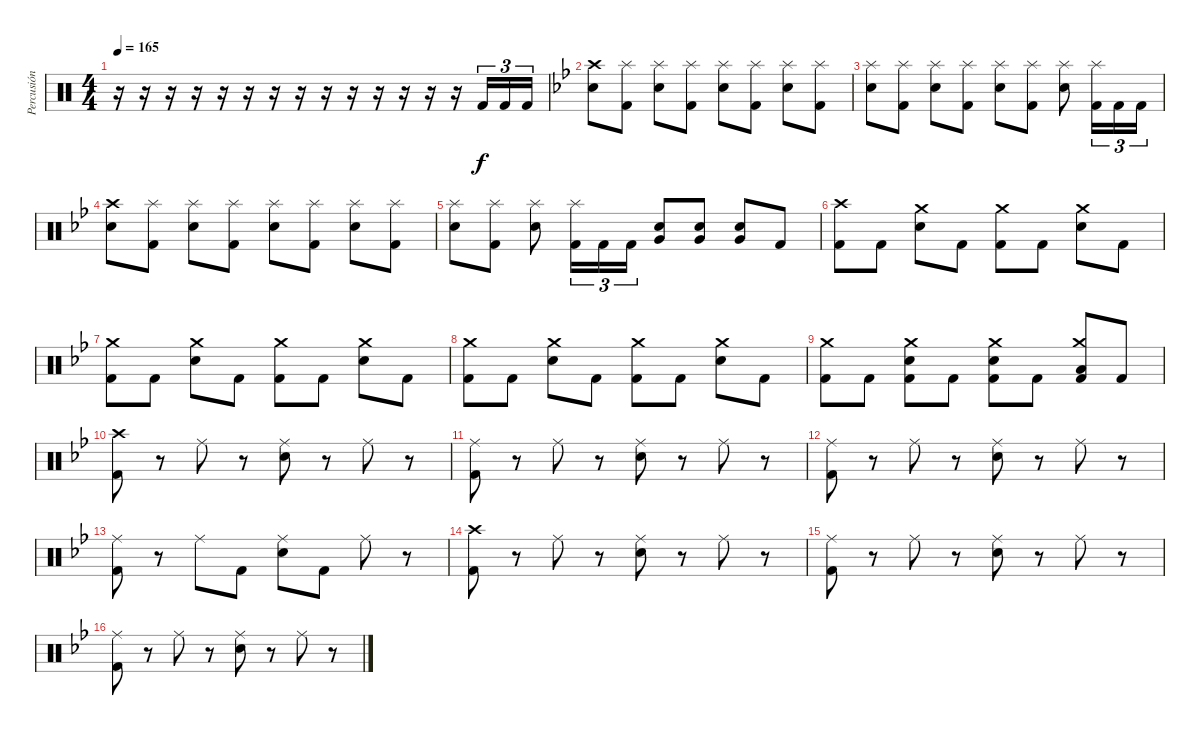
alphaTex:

\track ("Percusión" "Percusión") {instrument percussion}
\staff {score}
\articulation defaults
\ts (4 4)
\tempo 165
\clef neutral
\ks c
r.16{dy f} r.16 r.16 r.16 r.16 r.16 r.16 r.16 r.16 r.16 r.16 r.16 r.16 r.16 "Kick (hit) 2".16{tu (3 2)} "Kick (hit) 2".16{tu (3 2)} "Kick (hit) 2".16{tu (3 2)} |
\ks bb
("Crash high (hit)" "Electric Snare (hit)").8 ("Splash (hit)" "Kick (hit) 2").8 ("Splash (hit)" "Electric Snare (hit)").8 ("Splash (hit)" "Kick (hit) 2").8 ("Splash (hit)" "Electric Snare (hit)").8 ("Splash (hit)" "Kick (hit) 2").8 ("Splash (hit)" "Electric Snare (hit)").8 ("Splash (hit)" "Kick (hit) 2").8 |
("Splash (hit)" "Electric Snare (hit)").8 ("Splash (hit)" "Kick (hit) 2").8 ("Splash (hit)" "Electric Snare (hit)").8 ("Splash (hit)" "Kick (hit) 2").8 ("Splash (hit)" "Electric Snare (hit)").8 ("Splash (hit)" "Kick (hit) 2").8 ("Splash (hit)" "Electric Snare (hit)").8 ("Splash (hit)" "Kick (hit) 2").16{tu (3 2)} "Kick (hit) 2".16{tu (3 2)} "Kick (hit) 2".16{tu (3 2)} |
("Crash high (hit)" "Electric Snare (hit)").8 ("Splash (hit)" "Kick (hit) 2").8 ("Splash (hit)" "Electric Snare (hit)").8 ("Splash (hit)" "Kick (hit) 2").8 ("Splash (hit)" "Electric Snare (hit)").8 ("Splash (hit)" "Kick (hit) 2").8 ("Splash (hit)" "Electric Snare (hit)").8 ("Splash (hit)" "Kick (hit) 2").8 |
("Splash (hit)" "Electric Snare (hit)").8 ("Splash (hit)" "Kick (hit) 2").8 ("Splash (hit)" "Electric Snare (hit)").8 ("Splash (hit)" "Kick (hit) 2").16{tu (3 2)} "Kick (hit) 2".16{tu (3 2)} "Kick (hit) 2".16{tu (3 2)} ("Electric Snare (hit)" "Very Low Tom (hit)").8 ("Electric Snare (hit)" "Very Low Tom (hit)").8 ("Electric Snare (hit)" "Very Low Tom (hit)").8 "Kick (hit) 2".8 |
("Crash high (hit)" "Kick (hit) 2").8 "Kick (hit) 2".8 ("Crash medium (hit)" "Electric Snare (hit)").8 "Kick (hit) 2".8 ("Crash medium (hit)" "Kick (hit) 2").8 "Kick (hit) 2".8 ("Crash medium (hit)" "Electric Snare (hit)").8 "Kick (hit) 2".8 |
("Crash medium (hit)" "Kick (hit) 2").8 "Kick (hit) 2".8 ("Crash medium (hit)" "Electric Snare (hit)").8 "Kick (hit) 2".8 ("Crash medium (hit)" "Kick (hit) 2").8 "Kick (hit) 2".8 ("Crash medium (hit)" "Electric Snare (hit)").8 "Kick (hit) 2".8 |
("Crash medium (hit)" "Kick (hit) 2").8 "Kick (hit) 2".8 ("Crash medium (hit)" "Electric Snare (hit)").8 "Kick (hit) 2".8 ("Crash medium (hit)" "Kick (hit) 2").8 "Kick (hit) 2".8 ("Crash medium (hit)" "Electric Snare (hit)").8 "Kick (hit) 2".8 |
("Crash medium (hit)" "Kick (hit) 2").8 "Kick (hit) 2".8 ("Crash medium (hit)" "Electric Snare (hit)" "Kick (hit) 2").8 "Kick (hit) 2".8 ("Crash medium (hit)" "Electric Snare (hit)" "Kick (hit) 2").8 "Kick (hit) 2".8 ("Crash medium (hit)" "Low Tom (hit)" "Kick (hit) 2").8 "Kick (hit) 2".8 |
("Crash high (hit)" "Kick (hit) 2").8 r.8 "Ride (middle)".8 r.8 ("Ride (middle)" "Electric Snare (hit)").8 r.8 "Ride (middle)".8 r.8 |
("Ride (middle)" "Kick (hit) 2").8 r.8 "Ride (middle)".8 r.8 ("Ride (middle)" "Electric Snare (hit)").8 r.8 "Ride (middle)".8 r.8 |
("Ride (middle)" "Kick (hit) 2").8 r.8 "Ride (middle)".8 r.8 ("Ride (middle)" "Electric Snare (hit)").8 r.8 "Ride (middle)".8 r.8 |
("Ride (middle)" "Kick (hit) 2").8 r.8 "Ride (middle)".8 "Kick (hit) 2".8 ("Ride (middle)" "Electric Snare (hit)").8 "Kick (hit) 2".8 "Ride (middle)".8 r.8 |
("Crash high (hit)" "Kick (hit) 2").8 r.8 "Ride (middle)".8 r.8 ("Ride (middle)" "Electric Snare (hit)").8 r.8 "Ride (middle)".8 r.8 |
("Ride (middle)" "Kick (hit) 2").8 r.8 "Ride (middle)".8 r.8 ("Ride (middle)" "Electric Snare (hit)").8 r.8 "Ride (middle)".8 r.8 |
("Ride (middle)" "Kick (hit) 2").8 r.8 "Ride (middle)".8 r.8 ("Ride (middle)" "Electric Snare (hit)").8 r.8 "Ride (middle)".8 r.8
